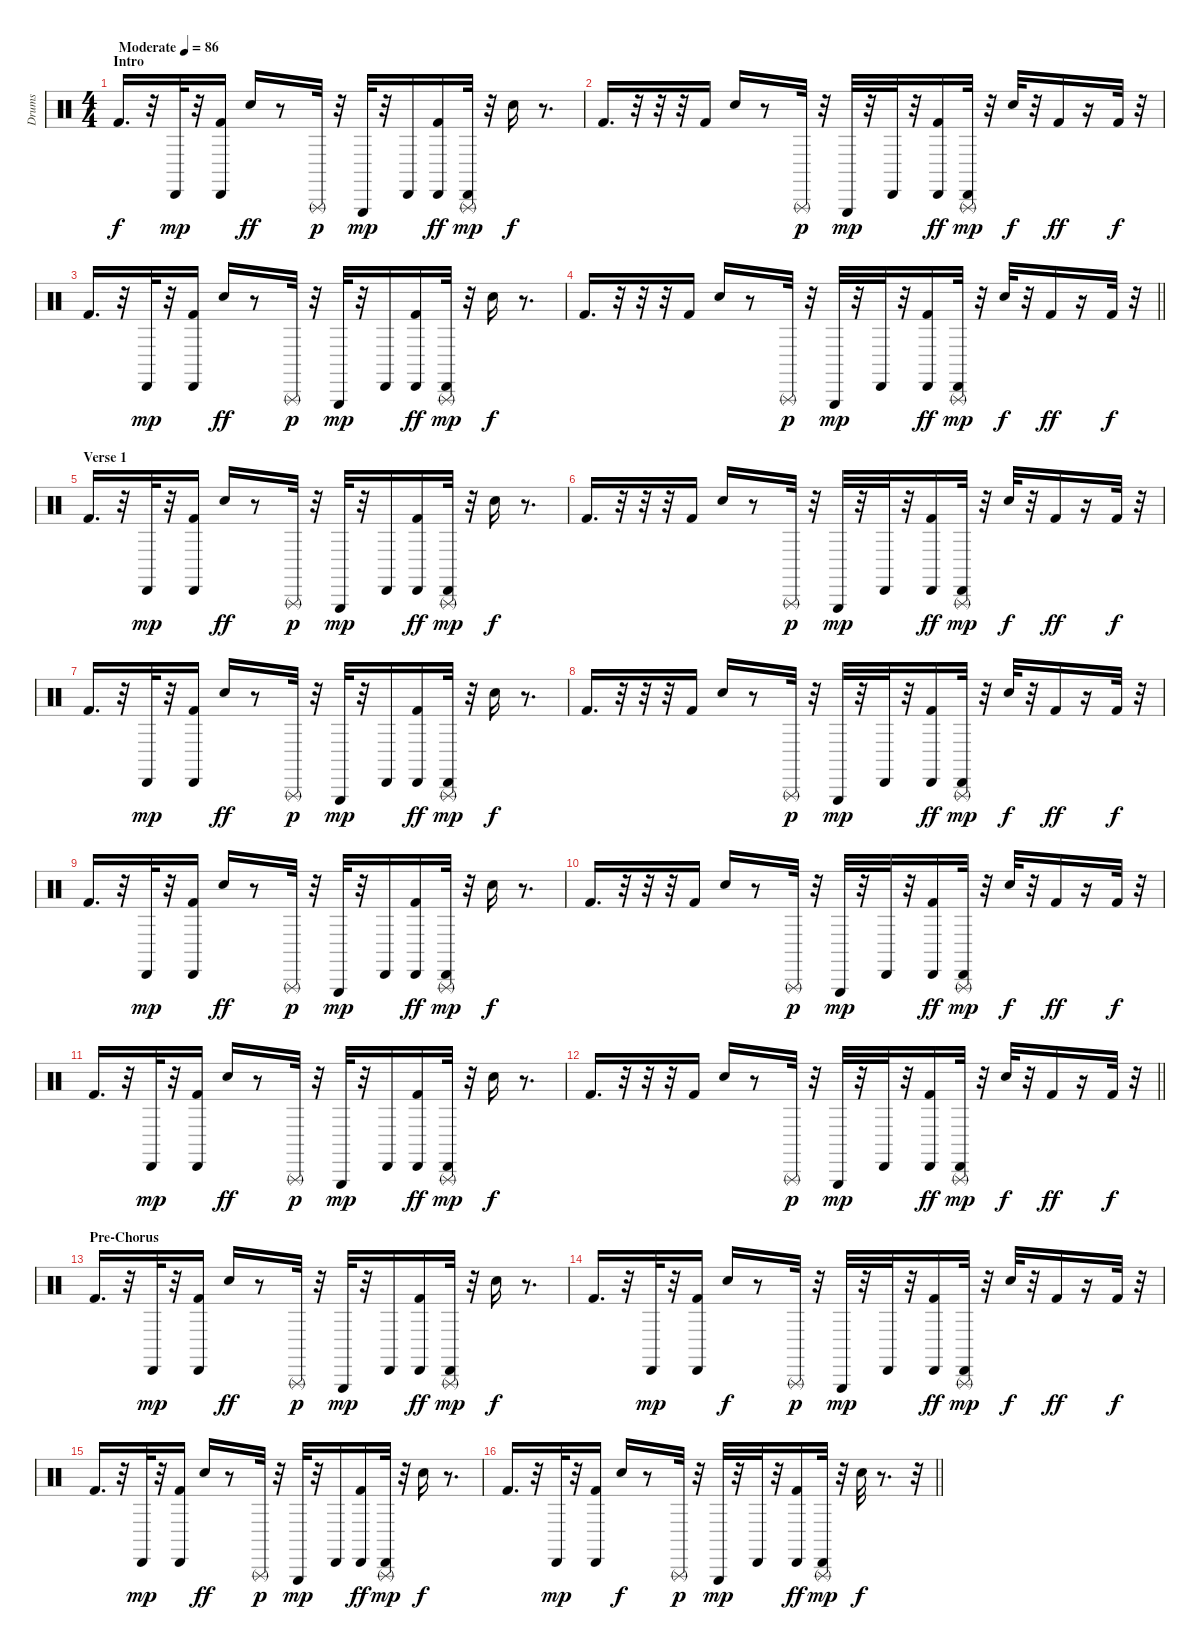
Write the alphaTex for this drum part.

\track ("Drums" "Drums") {instrument percussion}
\staff {score}
\articulation defaults
\ts (4 4)
\section ("" "Intro")
\tempo (86 "Moderate")
\clef neutral
\ks c "Kick (hit) 2".16{d dy f}
r.32 "Cabasa (hit)".32{dy mp} r.32 ("Cabasa (hit)" "Kick (hit) 2").16 "Hand Clap (hit)".16{dy ff} r.8 "Triangle (rnute)".32{dy p} r.32 "Triangle (hit)".32{dy mp} r.32 "Cabasa (hit)".16 ("Cabasa (hit)" "Kick (hit) 2").16{dy ff} ("Cabasa (hit)" "Triangle (rnute)").32{dy mp} r.32 "Hand Clap (hit)".16{dy f} r.8{d} |
"Kick (hit) 2".16{d} r.32 r.32 r.32 "Kick (hit) 2".16 "Hand Clap (hit)".16 r.8 "Triangle (rnute)".32{dy p} r.32 "Triangle (hit)".32{dy mp} r.32 "Cabasa (hit)".32 r.32 ("Cabasa (hit)" "Kick (hit) 2").16{dy ff} ("Cabasa (hit)" "Triangle (rnute)").32{dy mp} r.32 "Hand Clap (hit)".32{dy f} r.32 "Kick (hit) 2".16{dy ff} r.16 "Kick (hit) 2".32{dy f} r.32 |
"Kick (hit) 2".16{d} r.32 "Cabasa (hit)".32{dy mp} r.32 ("Cabasa (hit)" "Kick (hit) 2").16 "Hand Clap (hit)".16{dy ff} r.8 "Triangle (rnute)".32{dy p} r.32 "Triangle (hit)".32{dy mp} r.32 "Cabasa (hit)".16 ("Cabasa (hit)" "Kick (hit) 2").16{dy ff} ("Cabasa (hit)" "Triangle (rnute)").32{dy mp} r.32 "Hand Clap (hit)".16{dy f} r.8{d} |
\barLineRight lightlight "Kick (hit) 2".16{d}
r.32 r.32 r.32 "Kick (hit) 2".16 "Hand Clap (hit)".16 r.8 "Triangle (rnute)".32{dy p} r.32 "Triangle (hit)".32{dy mp} r.32 "Cabasa (hit)".32 r.32 ("Cabasa (hit)" "Kick (hit) 2").16{dy ff} ("Cabasa (hit)" "Triangle (rnute)").32{dy mp} r.32 "Hand Clap (hit)".32{dy f} r.32 "Kick (hit) 2".16{dy ff} r.16 "Kick (hit) 2".32{dy f} r.32 |
\section ("" "Verse 1")
"Kick (hit) 2".16{d} r.32 "Cabasa (hit)".32{dy mp} r.32 ("Cabasa (hit)" "Kick (hit) 2").16 "Hand Clap (hit)".16{dy ff} r.8 "Triangle (rnute)".32{dy p} r.32 "Triangle (hit)".32{dy mp} r.32 "Cabasa (hit)".16 ("Cabasa (hit)" "Kick (hit) 2").16{dy ff} ("Cabasa (hit)" "Triangle (rnute)").32{dy mp} r.32 "Hand Clap (hit)".16{dy f} r.8{d} |
"Kick (hit) 2".16{d} r.32 r.32 r.32 "Kick (hit) 2".16 "Hand Clap (hit)".16 r.8 "Triangle (rnute)".32{dy p} r.32 "Triangle (hit)".32{dy mp} r.32 "Cabasa (hit)".32 r.32 ("Cabasa (hit)" "Kick (hit) 2").16{dy ff} ("Cabasa (hit)" "Triangle (rnute)").32{dy mp} r.32 "Hand Clap (hit)".32{dy f} r.32 "Kick (hit) 2".16{dy ff} r.16 "Kick (hit) 2".32{dy f} r.32 |
"Kick (hit) 2".16{d} r.32 "Cabasa (hit)".32{dy mp} r.32 ("Cabasa (hit)" "Kick (hit) 2").16 "Hand Clap (hit)".16{dy ff} r.8 "Triangle (rnute)".32{dy p} r.32 "Triangle (hit)".32{dy mp} r.32 "Cabasa (hit)".16 ("Cabasa (hit)" "Kick (hit) 2").16{dy ff} ("Cabasa (hit)" "Triangle (rnute)").32{dy mp} r.32 "Hand Clap (hit)".16{dy f} r.8{d} |
"Kick (hit) 2".16{d} r.32 r.32 r.32 "Kick (hit) 2".16 "Hand Clap (hit)".16 r.8 "Triangle (rnute)".32{dy p} r.32 "Triangle (hit)".32{dy mp} r.32 "Cabasa (hit)".32 r.32 ("Cabasa (hit)" "Kick (hit) 2").16{dy ff} ("Cabasa (hit)" "Triangle (rnute)").32{dy mp} r.32 "Hand Clap (hit)".32{dy f} r.32 "Kick (hit) 2".16{dy ff} r.16 "Kick (hit) 2".32{dy f} r.32 |
"Kick (hit) 2".16{d} r.32 "Cabasa (hit)".32{dy mp} r.32 ("Cabasa (hit)" "Kick (hit) 2").16 "Hand Clap (hit)".16{dy ff} r.8 "Triangle (rnute)".32{dy p} r.32 "Triangle (hit)".32{dy mp} r.32 "Cabasa (hit)".16 ("Cabasa (hit)" "Kick (hit) 2").16{dy ff} ("Cabasa (hit)" "Triangle (rnute)").32{dy mp} r.32 "Hand Clap (hit)".16{dy f} r.8{d} |
"Kick (hit) 2".16{d} r.32 r.32 r.32 "Kick (hit) 2".16 "Hand Clap (hit)".16 r.8 "Triangle (rnute)".32{dy p} r.32 "Triangle (hit)".32{dy mp} r.32 "Cabasa (hit)".32 r.32 ("Cabasa (hit)" "Kick (hit) 2").16{dy ff} ("Cabasa (hit)" "Triangle (rnute)").32{dy mp} r.32 "Hand Clap (hit)".32{dy f} r.32 "Kick (hit) 2".16{dy ff} r.16 "Kick (hit) 2".32{dy f} r.32 |
"Kick (hit) 2".16{d} r.32 "Cabasa (hit)".32{dy mp} r.32 ("Cabasa (hit)" "Kick (hit) 2").16 "Hand Clap (hit)".16{dy ff} r.8 "Triangle (rnute)".32{dy p} r.32 "Triangle (hit)".32{dy mp} r.32 "Cabasa (hit)".16 ("Cabasa (hit)" "Kick (hit) 2").16{dy ff} ("Cabasa (hit)" "Triangle (rnute)").32{dy mp} r.32 "Hand Clap (hit)".16{dy f} r.8{d} |
\barLineRight lightlight "Kick (hit) 2".16{d}
r.32 r.32 r.32 "Kick (hit) 2".16 "Hand Clap (hit)".16 r.8 "Triangle (rnute)".32{dy p} r.32 "Triangle (hit)".32{dy mp} r.32 "Cabasa (hit)".32 r.32 ("Cabasa (hit)" "Kick (hit) 2").16{dy ff} ("Cabasa (hit)" "Triangle (rnute)").32{dy mp} r.32 "Hand Clap (hit)".32{dy f} r.32 "Kick (hit) 2".16{dy ff} r.16 "Kick (hit) 2".32{dy f} r.32 |
\section ("" "Pre-Chorus")
"Kick (hit) 2".16{d} r.32 "Cabasa (hit)".32{dy mp} r.32 ("Cabasa (hit)" "Kick (hit) 2").16 "Hand Clap (hit)".16{dy ff} r.8 "Triangle (rnute)".32{dy p} r.32 "Triangle (hit)".32{dy mp} r.32 "Cabasa (hit)".16 ("Cabasa (hit)" "Kick (hit) 2").16{dy ff} ("Cabasa (hit)" "Triangle (rnute)").32{dy mp} r.32 "Hand Clap (hit)".16{dy f} r.8{d} |
"Kick (hit) 2".16{d} r.32 "Cabasa (hit)".32{dy mp} r.32 ("Cabasa (hit)" "Kick (hit) 2").16 "Hand Clap (hit)".16{dy f} r.8 "Triangle (rnute)".32{dy p} r.32 "Triangle (hit)".32{dy mp} r.32 "Cabasa (hit)".32 r.32 ("Cabasa (hit)" "Kick (hit) 2").16{dy ff} ("Cabasa (hit)" "Triangle (rnute)").32{dy mp} r.32 "Hand Clap (hit)".32{dy f} r.32 "Kick (hit) 2".16{dy ff} r.16 "Kick (hit) 2".32{dy f} r.32 |
"Kick (hit) 2".16{d} r.32 "Cabasa (hit)".32{dy mp} r.32 ("Cabasa (hit)" "Kick (hit) 2").16 "Hand Clap (hit)".16{dy ff} r.8 "Triangle (rnute)".32{dy p} r.32 "Triangle (hit)".32{dy mp} r.32 "Cabasa (hit)".16 ("Cabasa (hit)" "Kick (hit) 2").16{dy ff} ("Cabasa (hit)" "Triangle (rnute)").32{dy mp} r.32 "Hand Clap (hit)".16{dy f} r.8{d} |
\barLineRight lightlight "Kick (hit) 2".16{d}
r.32 "Cabasa (hit)".32{dy mp} r.32 ("Cabasa (hit)" "Kick (hit) 2").16 "Hand Clap (hit)".16{dy f} r.8 "Triangle (rnute)".32{dy p} r.32 "Triangle (hit)".32{dy mp} r.32 "Cabasa (hit)".32 r.32 ("Cabasa (hit)" "Kick (hit) 2").16{dy ff} ("Cabasa (hit)" "Triangle (rnute)").32{dy mp} r.32 "Hand Clap (hit)".32{dy f} r.8{d} r.32
